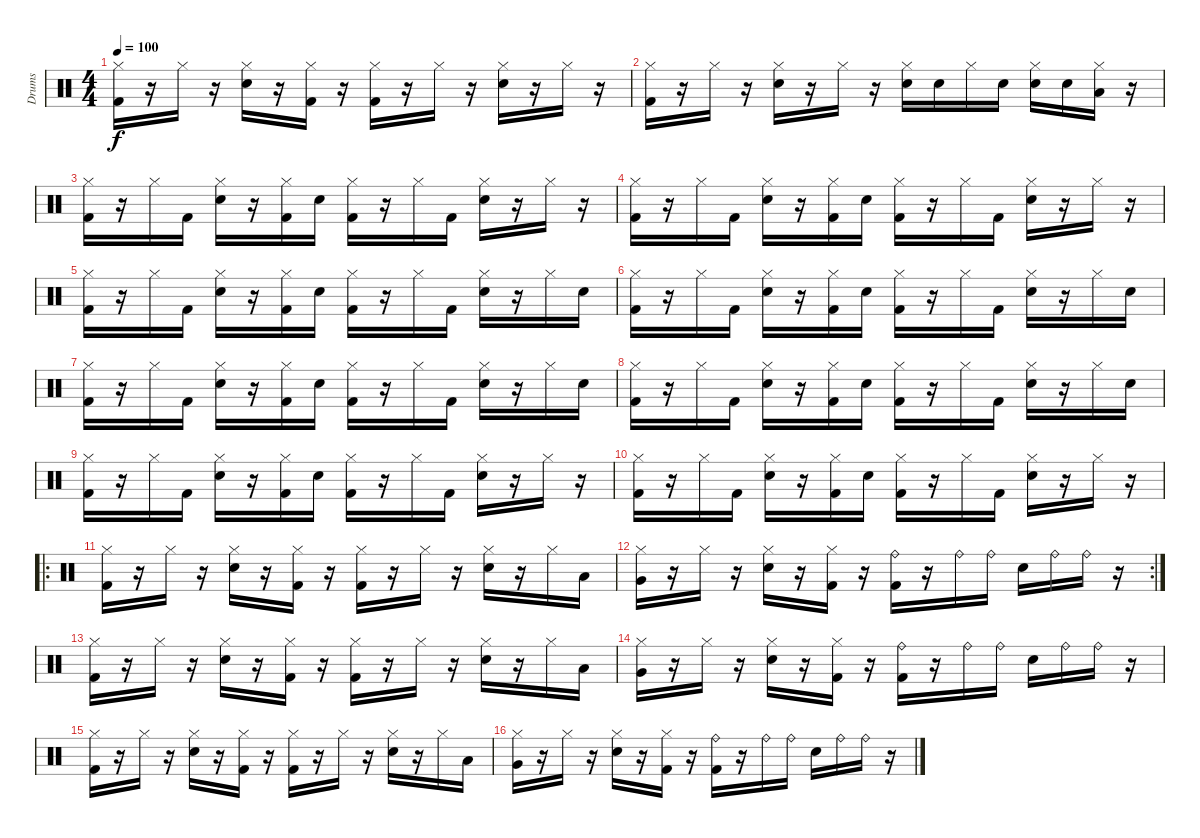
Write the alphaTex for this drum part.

\track ("Drums" "Drums") {instrument percussion}
\staff {score}
\articulation defaults
\ts (4 4)
\tempo 100
\clef neutral
\ks c
("Hi-Hat (closed)" "Kick (hit) 2").16{dy f} r.16 "Hi-Hat (closed)".16 r.16 ("Hi-Hat (closed)" "Snare (hit) 2").16 r.16 ("Hi-Hat (closed)" "Kick (hit) 2").16 r.16 ("Hi-Hat (closed)" "Kick (hit) 2").16 r.16 "Hi-Hat (closed)".16 r.16 ("Hi-Hat (closed)" "Snare (hit) 2").16 r.16 "Hi-Hat (closed)".16 r.16 |
("Hi-Hat (closed)" "Kick (hit) 2").16 r.16 "Hi-Hat (closed)".16 r.16 ("Hi-Hat (closed)" "Snare (hit) 2").16 r.16 "Hi-Hat (closed)".16 r.16 ("Hi-Hat (closed)" "Snare (hit) 2").16 "Snare (hit) 2".16 "Hi-Hat (closed)".16 "Snare (hit) 2".16 ("Hi-Hat (closed)" "Snare (hit) 2").16 "Snare (hit) 2".16 ("Hi-Hat (closed)" "Low Floor Tom (hit)").16 r.16 |
("Hi-Hat (closed)" "Kick (hit) 2").16 r.16 "Hi-Hat (closed)".16 "Kick (hit) 2".16 ("Hi-Hat (closed)" "Snare (hit) 2").16 r.16 ("Hi-Hat (closed)" "Kick (hit) 2").16 "Snare (hit) 2".16 ("Hi-Hat (closed)" "Kick (hit) 2").16 r.16 "Hi-Hat (closed)".16 "Kick (hit) 2".16 ("Hi-Hat (closed)" "Snare (hit) 2").16 r.16 "Hi-Hat (closed)".16 r.16 |
("Hi-Hat (closed)" "Kick (hit) 2").16 r.16 "Hi-Hat (closed)".16 "Kick (hit) 2".16 ("Hi-Hat (closed)" "Snare (hit) 2").16 r.16 ("Hi-Hat (closed)" "Kick (hit) 2").16 "Snare (hit) 2".16 ("Hi-Hat (closed)" "Kick (hit) 2").16 r.16 "Hi-Hat (closed)".16 "Kick (hit) 2".16 ("Hi-Hat (closed)" "Snare (hit) 2").16 r.16 "Hi-Hat (closed)".16 r.16 |
("Hi-Hat (closed)" "Kick (hit) 2").16 r.16 "Hi-Hat (closed)".16 "Kick (hit) 2".16 ("Hi-Hat (closed)" "Snare (hit) 2").16 r.16 ("Hi-Hat (closed)" "Kick (hit) 2").16 "Snare (hit) 2".16 ("Hi-Hat (closed)" "Kick (hit) 2").16 r.16 "Hi-Hat (closed)".16 "Kick (hit) 2".16 ("Hi-Hat (closed)" "Snare (hit) 2").16 r.16 "Hi-Hat (closed)".16 "Snare (hit) 2".16 |
("Hi-Hat (closed)" "Kick (hit) 2").16 r.16 "Hi-Hat (closed)".16 "Kick (hit) 2".16 ("Hi-Hat (closed)" "Snare (hit) 2").16 r.16 ("Hi-Hat (closed)" "Kick (hit) 2").16 "Snare (hit) 2".16 ("Hi-Hat (closed)" "Kick (hit) 2").16 r.16 "Hi-Hat (closed)".16 "Kick (hit) 2".16 ("Hi-Hat (closed)" "Snare (hit) 2").16 r.16 "Hi-Hat (closed)".16 "Snare (hit) 2".16 |
("Hi-Hat (closed)" "Kick (hit) 2").16 r.16 "Hi-Hat (closed)".16 "Kick (hit) 2".16 ("Hi-Hat (closed)" "Snare (hit) 2").16 r.16 ("Hi-Hat (closed)" "Kick (hit) 2").16 "Snare (hit) 2".16 ("Hi-Hat (closed)" "Kick (hit) 2").16 r.16 "Hi-Hat (closed)".16 "Kick (hit) 2".16 ("Hi-Hat (closed)" "Snare (hit) 2").16 r.16 "Hi-Hat (closed)".16 "Snare (hit) 2".16 |
("Hi-Hat (closed)" "Kick (hit) 2").16 r.16 "Hi-Hat (closed)".16 "Kick (hit) 2".16 ("Hi-Hat (closed)" "Snare (hit) 2").16 r.16 ("Hi-Hat (closed)" "Kick (hit) 2").16 "Snare (hit) 2".16 ("Hi-Hat (closed)" "Kick (hit) 2").16 r.16 "Hi-Hat (closed)".16 "Kick (hit) 2".16 ("Hi-Hat (closed)" "Snare (hit) 2").16 r.16 "Hi-Hat (closed)".16 "Snare (hit) 2".16 |
("Hi-Hat (closed)" "Kick (hit) 2").16 r.16 "Hi-Hat (closed)".16 "Kick (hit) 2".16 ("Hi-Hat (closed)" "Snare (hit) 2").16 r.16 ("Hi-Hat (closed)" "Kick (hit) 2").16 "Snare (hit) 2".16 ("Hi-Hat (closed)" "Kick (hit) 2").16 r.16 "Hi-Hat (closed)".16 "Kick (hit) 2".16 ("Hi-Hat (closed)" "Snare (hit) 2").16 r.16 "Hi-Hat (closed)".16 r.16 |
("Hi-Hat (closed)" "Kick (hit) 2").16 r.16 "Hi-Hat (closed)".16 "Kick (hit) 2".16 ("Hi-Hat (closed)" "Snare (hit) 2").16 r.16 ("Hi-Hat (closed)" "Kick (hit) 2").16 "Snare (hit) 2".16 ("Hi-Hat (closed)" "Kick (hit) 2").16 r.16 "Hi-Hat (closed)".16 "Kick (hit) 2".16 ("Hi-Hat (closed)" "Snare (hit) 2").16 r.16 "Hi-Hat (closed)".16 r.16 |
\ro
("Hi-Hat (closed)" "Kick (hit) 2").16 r.16 "Hi-Hat (closed)".16 r.16 ("Hi-Hat (closed)" "Snare (hit) 2").16 r.16 ("Hi-Hat (closed)" "Kick (hit) 2").16 r.16 ("Hi-Hat (closed)" "Kick (hit) 2").16 r.16 "Hi-Hat (closed)".16 r.16 ("Hi-Hat (closed)" "Snare (hit) 2").16 r.16 "Hi-Hat (closed)".16 "Low Floor Tom (hit)".16 |
\rc 2
("Hi-Hat (closed)" "Very Low Tom (hit)").16 r.16 "Hi-Hat (closed)".16 r.16 ("Hi-Hat (closed)" "Snare (hit) 2").16 r.16 ("Hi-Hat (closed)" "Kick (hit) 2").16 r.16 ("Ride (bell)" "Kick (hit) 2").16 r.16 "Ride (bell)".16 "Ride (bell)".16 "Snare (hit) 2".16 "Ride (bell)".16 "Ride (bell)".16 r.16 |
("Hi-Hat (closed)" "Kick (hit) 2").16 r.16 "Hi-Hat (closed)".16 r.16 ("Hi-Hat (closed)" "Snare (hit) 2").16 r.16 ("Hi-Hat (closed)" "Kick (hit) 2").16 r.16 ("Hi-Hat (closed)" "Kick (hit) 2").16 r.16 "Hi-Hat (closed)".16 r.16 ("Hi-Hat (closed)" "Snare (hit) 2").16 r.16 "Hi-Hat (closed)".16 "Low Floor Tom (hit)".16 |
("Hi-Hat (closed)" "Very Low Tom (hit)").16 r.16 "Hi-Hat (closed)".16 r.16 ("Hi-Hat (closed)" "Snare (hit) 2").16 r.16 ("Hi-Hat (closed)" "Kick (hit) 2").16 r.16 ("Ride (bell)" "Kick (hit) 2").16 r.16 "Ride (bell)".16 "Ride (bell)".16 "Snare (hit) 2".16 "Ride (bell)".16 "Ride (bell)".16 r.16 |
("Hi-Hat (closed)" "Kick (hit) 2").16 r.16 "Hi-Hat (closed)".16 r.16 ("Hi-Hat (closed)" "Snare (hit) 2").16 r.16 ("Hi-Hat (closed)" "Kick (hit) 2").16 r.16 ("Hi-Hat (closed)" "Kick (hit) 2").16 r.16 "Hi-Hat (closed)".16 r.16 ("Hi-Hat (closed)" "Snare (hit) 2").16 r.16 "Hi-Hat (closed)".16 "Low Floor Tom (hit)".16 |
("Hi-Hat (closed)" "Very Low Tom (hit)").16 r.16 "Hi-Hat (closed)".16 r.16 ("Hi-Hat (closed)" "Snare (hit) 2").16 r.16 ("Hi-Hat (closed)" "Kick (hit) 2").16 r.16 ("Ride (bell)" "Kick (hit) 2").16 r.16 "Ride (bell)".16 "Ride (bell)".16 "Snare (hit) 2".16 "Ride (bell)".16 "Ride (bell)".16 r.16
